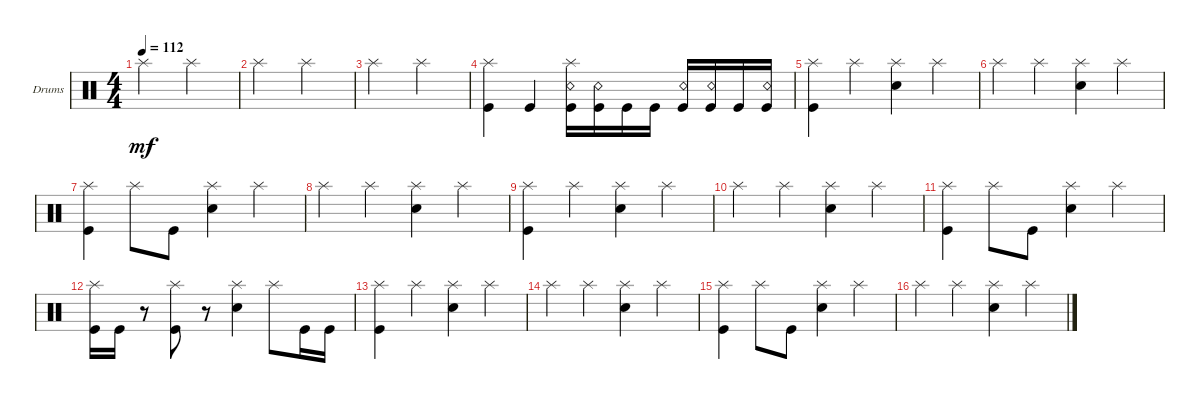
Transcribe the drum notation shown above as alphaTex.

\defaultSystemsLayout 4
\bracketExtendMode groupsimilarinstruments
\firstSystemTrackNameOrientation horizontal
\otherSystemsTrackNameOrientation horizontal
\track ("Drumkit" "Drums") {instrument percussion}
\staff {score}
\articulation defaults
\ts (4 4)
\tempo 112
\clef neutral
\ks c "Splash (hit)".2{dy mf} "Splash (hit)".2
|
"Splash (hit)".2 "Splash (hit)".2 |
"Splash (hit)".2 "Splash (hit)".2 |
("Splash (hit)" "Kick (hit)").4 "Kick (hit)".4 ("Snare (rim shot)" "Splash (hit)" "Kick (hit)").16 ("Snare (rim shot)" "Kick (hit)").16 "Kick (hit)".16 "Kick (hit)".16 ("Snare (rim shot)" "Kick (hit)").16 ("Snare (rim shot)" "Kick (hit)").16 "Kick (hit)".16 ("Kick (hit)" "Snare (rim shot)").16 |
("Splash (hit)" "Kick (hit)").4 "Splash (hit)".4 ("Splash (hit)" "Snare (hit) 2").4 "Splash (hit)".4 |
"Splash (hit)".4 "Splash (hit)".4 ("Splash (hit)" "Snare (hit) 2").4 "Splash (hit)".4 |
("Splash (hit)" "Kick (hit)").4 "Splash (hit)".8 "Kick (hit)".8 ("Splash (hit)" "Snare (hit) 2").4 "Splash (hit)".4 |
"Splash (hit)".4 "Splash (hit)".4 ("Splash (hit)" "Snare (hit) 2").4 "Splash (hit)".4 |
("Splash (hit)" "Kick (hit)").4 "Splash (hit)".4 ("Splash (hit)" "Snare (hit) 2").4 "Splash (hit)".4 |
"Splash (hit)".4 "Splash (hit)".4 ("Splash (hit)" "Snare (hit) 2").4 "Splash (hit)".4 |
("Splash (hit)" "Kick (hit)").4 "Splash (hit)".8 "Kick (hit)".8 ("Splash (hit)" "Snare (hit) 2").4 "Splash (hit)".4 |
("Splash (hit)" "Kick (hit)").16 "Kick (hit)".16 r.8 ("Kick (hit)" "Splash (hit)").8 r.8 ("Splash (hit)" "Snare (hit) 2").4 "Splash (hit)".8 "Kick (hit)".16 "Kick (hit)".16 |
("Splash (hit)" "Kick (hit)").4 "Splash (hit)".4 ("Splash (hit)" "Snare (hit) 2").4 "Splash (hit)".4 |
"Splash (hit)".4 "Splash (hit)".4 ("Splash (hit)" "Snare (hit) 2").4 "Splash (hit)".4 |
("Splash (hit)" "Kick (hit)").4 "Splash (hit)".8 "Kick (hit)".8 ("Splash (hit)" "Snare (hit) 2").4 "Splash (hit)".4 |
"Splash (hit)".4 "Splash (hit)".4 ("Splash (hit)" "Snare (hit) 2").4 "Splash (hit)".4
